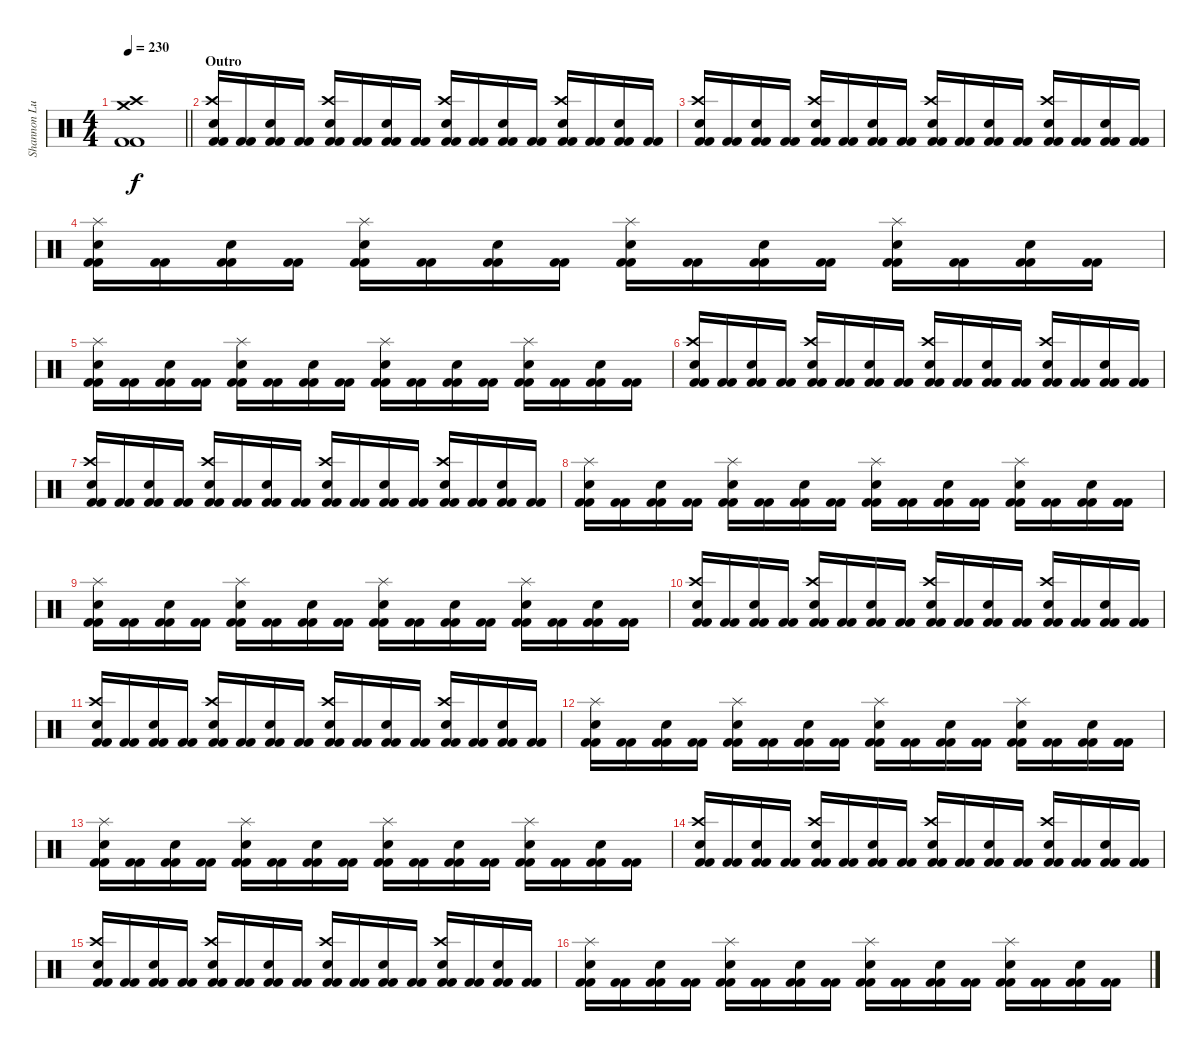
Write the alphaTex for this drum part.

\track ("Shannon Lucas" "Shannon Lu") {instrument percussion}
\staff {score}
\articulation defaults
\ts (4 4)
\tempo 230
\clef neutral
\barLineRight lightlight
\ks c
("Kick (hit) 2" "Crash medium (hit)" "Crash high (hit)" "Kick (hit) 2").1{dy f} |
\section ("" "Outro")
("Crash high (hit)" "Electric Snare (hit)" "Kick (hit) 2" "Kick (hit) 2").16 ("Kick (hit) 2" "Kick (hit) 2").16 ("Electric Snare (hit)" "Kick (hit) 2" "Kick (hit) 2").16 ("Kick (hit) 2" "Kick (hit) 2").16 ("Crash high (hit)" "Electric Snare (hit)" "Kick (hit) 2" "Kick (hit) 2").16 ("Kick (hit) 2" "Kick (hit) 2").16 ("Electric Snare (hit)" "Kick (hit) 2" "Kick (hit) 2").16 ("Kick (hit) 2" "Kick (hit) 2").16 ("Crash high (hit)" "Electric Snare (hit)" "Kick (hit) 2" "Kick (hit) 2").16 ("Kick (hit) 2" "Kick (hit) 2").16 ("Electric Snare (hit)" "Kick (hit) 2" "Kick (hit) 2").16 ("Kick (hit) 2" "Kick (hit) 2").16 ("Crash high (hit)" "Electric Snare (hit)" "Kick (hit) 2" "Kick (hit) 2").16 ("Kick (hit) 2" "Kick (hit) 2").16 ("Electric Snare (hit)" "Kick (hit) 2" "Kick (hit) 2").16 ("Kick (hit) 2" "Kick (hit) 2").16 |
("Crash high (hit)" "Electric Snare (hit)" "Kick (hit) 2" "Kick (hit) 2").16 ("Kick (hit) 2" "Kick (hit) 2").16 ("Electric Snare (hit)" "Kick (hit) 2" "Kick (hit) 2").16 ("Kick (hit) 2" "Kick (hit) 2").16 ("Crash high (hit)" "Electric Snare (hit)" "Kick (hit) 2" "Kick (hit) 2").16 ("Kick (hit) 2" "Kick (hit) 2").16 ("Electric Snare (hit)" "Kick (hit) 2" "Kick (hit) 2").16 ("Kick (hit) 2" "Kick (hit) 2").16 ("Crash high (hit)" "Electric Snare (hit)" "Kick (hit) 2" "Kick (hit) 2").16 ("Kick (hit) 2" "Kick (hit) 2").16 ("Electric Snare (hit)" "Kick (hit) 2" "Kick (hit) 2").16 ("Kick (hit) 2" "Kick (hit) 2").16 ("Crash high (hit)" "Electric Snare (hit)" "Kick (hit) 2" "Kick (hit) 2").16 ("Kick (hit) 2" "Kick (hit) 2").16 ("Electric Snare (hit)" "Kick (hit) 2" "Kick (hit) 2").16 ("Kick (hit) 2" "Kick (hit) 2").16 |
("Splash (hit)" "Electric Snare (hit)" "Kick (hit) 2" "Kick (hit) 2").16 ("Kick (hit) 2" "Kick (hit) 2").16 ("Electric Snare (hit)" "Kick (hit) 2" "Kick (hit) 2").16 ("Kick (hit) 2" "Kick (hit) 2").16 ("Splash (hit)" "Electric Snare (hit)" "Kick (hit) 2" "Kick (hit) 2").16 ("Kick (hit) 2" "Kick (hit) 2").16 ("Electric Snare (hit)" "Kick (hit) 2" "Kick (hit) 2").16 ("Kick (hit) 2" "Kick (hit) 2").16 ("Splash (hit)" "Electric Snare (hit)" "Kick (hit) 2" "Kick (hit) 2").16 ("Kick (hit) 2" "Kick (hit) 2").16 ("Electric Snare (hit)" "Kick (hit) 2" "Kick (hit) 2").16 ("Kick (hit) 2" "Kick (hit) 2").16 ("Splash (hit)" "Electric Snare (hit)" "Kick (hit) 2" "Kick (hit) 2").16 ("Kick (hit) 2" "Kick (hit) 2").16 ("Electric Snare (hit)" "Kick (hit) 2" "Kick (hit) 2").16 ("Kick (hit) 2" "Kick (hit) 2").16 |
("Splash (hit)" "Electric Snare (hit)" "Kick (hit) 2" "Kick (hit) 2").16 ("Kick (hit) 2" "Kick (hit) 2").16 ("Electric Snare (hit)" "Kick (hit) 2" "Kick (hit) 2").16 ("Kick (hit) 2" "Kick (hit) 2").16 ("Splash (hit)" "Electric Snare (hit)" "Kick (hit) 2" "Kick (hit) 2").16 ("Kick (hit) 2" "Kick (hit) 2").16 ("Electric Snare (hit)" "Kick (hit) 2" "Kick (hit) 2").16 ("Kick (hit) 2" "Kick (hit) 2").16 ("Splash (hit)" "Electric Snare (hit)" "Kick (hit) 2" "Kick (hit) 2").16 ("Kick (hit) 2" "Kick (hit) 2").16 ("Electric Snare (hit)" "Kick (hit) 2" "Kick (hit) 2").16 ("Kick (hit) 2" "Kick (hit) 2").16 ("Splash (hit)" "Electric Snare (hit)" "Kick (hit) 2" "Kick (hit) 2").16 ("Kick (hit) 2" "Kick (hit) 2").16 ("Electric Snare (hit)" "Kick (hit) 2" "Kick (hit) 2").16 ("Kick (hit) 2" "Kick (hit) 2").16 |
("Crash high (hit)" "Electric Snare (hit)" "Kick (hit) 2" "Kick (hit) 2").16 ("Kick (hit) 2" "Kick (hit) 2").16 ("Electric Snare (hit)" "Kick (hit) 2" "Kick (hit) 2").16 ("Kick (hit) 2" "Kick (hit) 2").16 ("Crash high (hit)" "Electric Snare (hit)" "Kick (hit) 2" "Kick (hit) 2").16 ("Kick (hit) 2" "Kick (hit) 2").16 ("Electric Snare (hit)" "Kick (hit) 2" "Kick (hit) 2").16 ("Kick (hit) 2" "Kick (hit) 2").16 ("Crash high (hit)" "Electric Snare (hit)" "Kick (hit) 2" "Kick (hit) 2").16 ("Kick (hit) 2" "Kick (hit) 2").16 ("Electric Snare (hit)" "Kick (hit) 2" "Kick (hit) 2").16 ("Kick (hit) 2" "Kick (hit) 2").16 ("Crash high (hit)" "Electric Snare (hit)" "Kick (hit) 2" "Kick (hit) 2").16 ("Kick (hit) 2" "Kick (hit) 2").16 ("Electric Snare (hit)" "Kick (hit) 2" "Kick (hit) 2").16 ("Kick (hit) 2" "Kick (hit) 2").16 |
("Crash high (hit)" "Electric Snare (hit)" "Kick (hit) 2" "Kick (hit) 2").16 ("Kick (hit) 2" "Kick (hit) 2").16 ("Electric Snare (hit)" "Kick (hit) 2" "Kick (hit) 2").16 ("Kick (hit) 2" "Kick (hit) 2").16 ("Crash high (hit)" "Electric Snare (hit)" "Kick (hit) 2" "Kick (hit) 2").16 ("Kick (hit) 2" "Kick (hit) 2").16 ("Electric Snare (hit)" "Kick (hit) 2" "Kick (hit) 2").16 ("Kick (hit) 2" "Kick (hit) 2").16 ("Crash high (hit)" "Electric Snare (hit)" "Kick (hit) 2" "Kick (hit) 2").16 ("Kick (hit) 2" "Kick (hit) 2").16 ("Electric Snare (hit)" "Kick (hit) 2" "Kick (hit) 2").16 ("Kick (hit) 2" "Kick (hit) 2").16 ("Crash high (hit)" "Electric Snare (hit)" "Kick (hit) 2" "Kick (hit) 2").16 ("Kick (hit) 2" "Kick (hit) 2").16 ("Electric Snare (hit)" "Kick (hit) 2" "Kick (hit) 2").16 ("Kick (hit) 2" "Kick (hit) 2").16 |
("Splash (hit)" "Electric Snare (hit)" "Kick (hit) 2" "Kick (hit) 2").16 ("Kick (hit) 2" "Kick (hit) 2").16 ("Electric Snare (hit)" "Kick (hit) 2" "Kick (hit) 2").16 ("Kick (hit) 2" "Kick (hit) 2").16 ("Splash (hit)" "Electric Snare (hit)" "Kick (hit) 2" "Kick (hit) 2").16 ("Kick (hit) 2" "Kick (hit) 2").16 ("Electric Snare (hit)" "Kick (hit) 2" "Kick (hit) 2").16 ("Kick (hit) 2" "Kick (hit) 2").16 ("Splash (hit)" "Electric Snare (hit)" "Kick (hit) 2" "Kick (hit) 2").16 ("Kick (hit) 2" "Kick (hit) 2").16 ("Electric Snare (hit)" "Kick (hit) 2" "Kick (hit) 2").16 ("Kick (hit) 2" "Kick (hit) 2").16 ("Splash (hit)" "Electric Snare (hit)" "Kick (hit) 2" "Kick (hit) 2").16 ("Kick (hit) 2" "Kick (hit) 2").16 ("Electric Snare (hit)" "Kick (hit) 2" "Kick (hit) 2").16 ("Kick (hit) 2" "Kick (hit) 2").16 |
("Splash (hit)" "Electric Snare (hit)" "Kick (hit) 2" "Kick (hit) 2").16 ("Kick (hit) 2" "Kick (hit) 2").16 ("Electric Snare (hit)" "Kick (hit) 2" "Kick (hit) 2").16 ("Kick (hit) 2" "Kick (hit) 2").16 ("Splash (hit)" "Electric Snare (hit)" "Kick (hit) 2" "Kick (hit) 2").16 ("Kick (hit) 2" "Kick (hit) 2").16 ("Electric Snare (hit)" "Kick (hit) 2" "Kick (hit) 2").16 ("Kick (hit) 2" "Kick (hit) 2").16 ("Splash (hit)" "Electric Snare (hit)" "Kick (hit) 2" "Kick (hit) 2").16 ("Kick (hit) 2" "Kick (hit) 2").16 ("Electric Snare (hit)" "Kick (hit) 2" "Kick (hit) 2").16 ("Kick (hit) 2" "Kick (hit) 2").16 ("Splash (hit)" "Electric Snare (hit)" "Kick (hit) 2" "Kick (hit) 2").16 ("Kick (hit) 2" "Kick (hit) 2").16 ("Electric Snare (hit)" "Kick (hit) 2" "Kick (hit) 2").16 ("Kick (hit) 2" "Kick (hit) 2").16 |
("Crash high (hit)" "Electric Snare (hit)" "Kick (hit) 2" "Kick (hit) 2").16 ("Kick (hit) 2" "Kick (hit) 2").16 ("Electric Snare (hit)" "Kick (hit) 2" "Kick (hit) 2").16 ("Kick (hit) 2" "Kick (hit) 2").16 ("Crash high (hit)" "Electric Snare (hit)" "Kick (hit) 2" "Kick (hit) 2").16 ("Kick (hit) 2" "Kick (hit) 2").16 ("Electric Snare (hit)" "Kick (hit) 2" "Kick (hit) 2").16 ("Kick (hit) 2" "Kick (hit) 2").16 ("Crash high (hit)" "Electric Snare (hit)" "Kick (hit) 2" "Kick (hit) 2").16 ("Kick (hit) 2" "Kick (hit) 2").16 ("Electric Snare (hit)" "Kick (hit) 2" "Kick (hit) 2").16 ("Kick (hit) 2" "Kick (hit) 2").16 ("Crash high (hit)" "Electric Snare (hit)" "Kick (hit) 2" "Kick (hit) 2").16 ("Kick (hit) 2" "Kick (hit) 2").16 ("Electric Snare (hit)" "Kick (hit) 2" "Kick (hit) 2").16 ("Kick (hit) 2" "Kick (hit) 2").16 |
("Crash high (hit)" "Electric Snare (hit)" "Kick (hit) 2" "Kick (hit) 2").16 ("Kick (hit) 2" "Kick (hit) 2").16 ("Electric Snare (hit)" "Kick (hit) 2" "Kick (hit) 2").16 ("Kick (hit) 2" "Kick (hit) 2").16 ("Crash high (hit)" "Electric Snare (hit)" "Kick (hit) 2" "Kick (hit) 2").16 ("Kick (hit) 2" "Kick (hit) 2").16 ("Electric Snare (hit)" "Kick (hit) 2" "Kick (hit) 2").16 ("Kick (hit) 2" "Kick (hit) 2").16 ("Crash high (hit)" "Electric Snare (hit)" "Kick (hit) 2" "Kick (hit) 2").16 ("Kick (hit) 2" "Kick (hit) 2").16 ("Electric Snare (hit)" "Kick (hit) 2" "Kick (hit) 2").16 ("Kick (hit) 2" "Kick (hit) 2").16 ("Crash high (hit)" "Electric Snare (hit)" "Kick (hit) 2" "Kick (hit) 2").16 ("Kick (hit) 2" "Kick (hit) 2").16 ("Electric Snare (hit)" "Kick (hit) 2" "Kick (hit) 2").16 ("Kick (hit) 2" "Kick (hit) 2").16 |
("Splash (hit)" "Electric Snare (hit)" "Kick (hit) 2" "Kick (hit) 2").16 ("Kick (hit) 2" "Kick (hit) 2").16 ("Electric Snare (hit)" "Kick (hit) 2" "Kick (hit) 2").16 ("Kick (hit) 2" "Kick (hit) 2").16 ("Splash (hit)" "Electric Snare (hit)" "Kick (hit) 2" "Kick (hit) 2").16 ("Kick (hit) 2" "Kick (hit) 2").16 ("Electric Snare (hit)" "Kick (hit) 2" "Kick (hit) 2").16 ("Kick (hit) 2" "Kick (hit) 2").16 ("Splash (hit)" "Electric Snare (hit)" "Kick (hit) 2" "Kick (hit) 2").16 ("Kick (hit) 2" "Kick (hit) 2").16 ("Electric Snare (hit)" "Kick (hit) 2" "Kick (hit) 2").16 ("Kick (hit) 2" "Kick (hit) 2").16 ("Splash (hit)" "Electric Snare (hit)" "Kick (hit) 2" "Kick (hit) 2").16 ("Kick (hit) 2" "Kick (hit) 2").16 ("Electric Snare (hit)" "Kick (hit) 2" "Kick (hit) 2").16 ("Kick (hit) 2" "Kick (hit) 2").16 |
("Splash (hit)" "Electric Snare (hit)" "Kick (hit) 2" "Kick (hit) 2").16 ("Kick (hit) 2" "Kick (hit) 2").16 ("Electric Snare (hit)" "Kick (hit) 2" "Kick (hit) 2").16 ("Kick (hit) 2" "Kick (hit) 2").16 ("Splash (hit)" "Electric Snare (hit)" "Kick (hit) 2" "Kick (hit) 2").16 ("Kick (hit) 2" "Kick (hit) 2").16 ("Electric Snare (hit)" "Kick (hit) 2" "Kick (hit) 2").16 ("Kick (hit) 2" "Kick (hit) 2").16 ("Splash (hit)" "Electric Snare (hit)" "Kick (hit) 2" "Kick (hit) 2").16 ("Kick (hit) 2" "Kick (hit) 2").16 ("Electric Snare (hit)" "Kick (hit) 2" "Kick (hit) 2").16 ("Kick (hit) 2" "Kick (hit) 2").16 ("Splash (hit)" "Electric Snare (hit)" "Kick (hit) 2" "Kick (hit) 2").16 ("Kick (hit) 2" "Kick (hit) 2").16 ("Electric Snare (hit)" "Kick (hit) 2" "Kick (hit) 2").16 ("Kick (hit) 2" "Kick (hit) 2").16 |
("Crash high (hit)" "Electric Snare (hit)" "Kick (hit) 2" "Kick (hit) 2").16 ("Kick (hit) 2" "Kick (hit) 2").16 ("Electric Snare (hit)" "Kick (hit) 2" "Kick (hit) 2").16 ("Kick (hit) 2" "Kick (hit) 2").16 ("Crash high (hit)" "Electric Snare (hit)" "Kick (hit) 2" "Kick (hit) 2").16 ("Kick (hit) 2" "Kick (hit) 2").16 ("Electric Snare (hit)" "Kick (hit) 2" "Kick (hit) 2").16 ("Kick (hit) 2" "Kick (hit) 2").16 ("Crash high (hit)" "Electric Snare (hit)" "Kick (hit) 2" "Kick (hit) 2").16 ("Kick (hit) 2" "Kick (hit) 2").16 ("Electric Snare (hit)" "Kick (hit) 2" "Kick (hit) 2").16 ("Kick (hit) 2" "Kick (hit) 2").16 ("Crash high (hit)" "Electric Snare (hit)" "Kick (hit) 2" "Kick (hit) 2").16 ("Kick (hit) 2" "Kick (hit) 2").16 ("Electric Snare (hit)" "Kick (hit) 2" "Kick (hit) 2").16 ("Kick (hit) 2" "Kick (hit) 2").16 |
("Crash high (hit)" "Electric Snare (hit)" "Kick (hit) 2" "Kick (hit) 2").16 ("Kick (hit) 2" "Kick (hit) 2").16 ("Electric Snare (hit)" "Kick (hit) 2" "Kick (hit) 2").16 ("Kick (hit) 2" "Kick (hit) 2").16 ("Crash high (hit)" "Electric Snare (hit)" "Kick (hit) 2" "Kick (hit) 2").16 ("Kick (hit) 2" "Kick (hit) 2").16 ("Electric Snare (hit)" "Kick (hit) 2" "Kick (hit) 2").16 ("Kick (hit) 2" "Kick (hit) 2").16 ("Crash high (hit)" "Electric Snare (hit)" "Kick (hit) 2" "Kick (hit) 2").16 ("Kick (hit) 2" "Kick (hit) 2").16 ("Electric Snare (hit)" "Kick (hit) 2" "Kick (hit) 2").16 ("Kick (hit) 2" "Kick (hit) 2").16 ("Crash high (hit)" "Electric Snare (hit)" "Kick (hit) 2" "Kick (hit) 2").16 ("Kick (hit) 2" "Kick (hit) 2").16 ("Electric Snare (hit)" "Kick (hit) 2" "Kick (hit) 2").16 ("Kick (hit) 2" "Kick (hit) 2").16 |
("Splash (hit)" "Electric Snare (hit)" "Kick (hit) 2" "Kick (hit) 2").16 ("Kick (hit) 2" "Kick (hit) 2").16 ("Electric Snare (hit)" "Kick (hit) 2" "Kick (hit) 2").16 ("Kick (hit) 2" "Kick (hit) 2").16 ("Splash (hit)" "Electric Snare (hit)" "Kick (hit) 2" "Kick (hit) 2").16 ("Kick (hit) 2" "Kick (hit) 2").16 ("Electric Snare (hit)" "Kick (hit) 2" "Kick (hit) 2").16 ("Kick (hit) 2" "Kick (hit) 2").16 ("Splash (hit)" "Electric Snare (hit)" "Kick (hit) 2" "Kick (hit) 2").16 ("Kick (hit) 2" "Kick (hit) 2").16 ("Electric Snare (hit)" "Kick (hit) 2" "Kick (hit) 2").16 ("Kick (hit) 2" "Kick (hit) 2").16 ("Splash (hit)" "Electric Snare (hit)" "Kick (hit) 2" "Kick (hit) 2").16 ("Kick (hit) 2" "Kick (hit) 2").16 ("Electric Snare (hit)" "Kick (hit) 2" "Kick (hit) 2").16 ("Kick (hit) 2" "Kick (hit) 2").16
